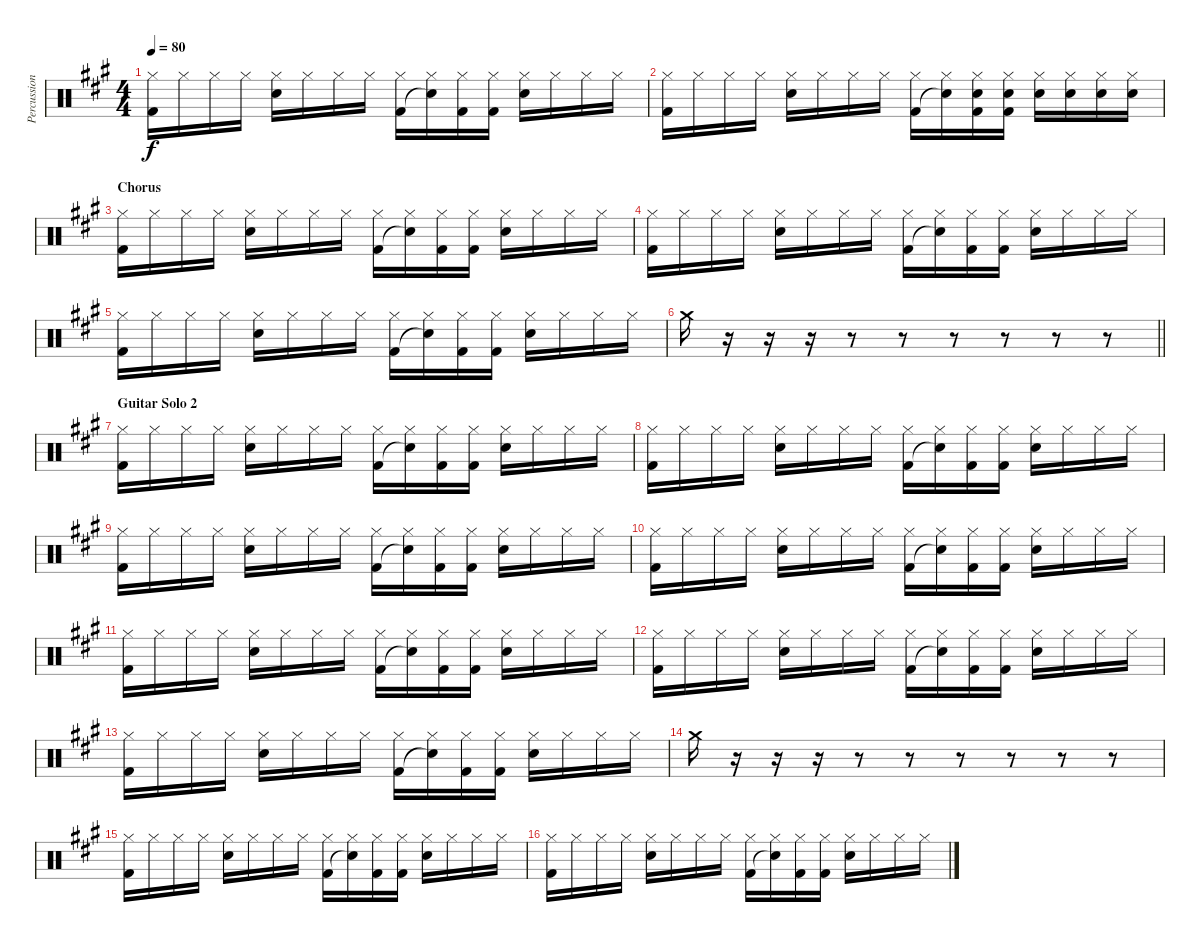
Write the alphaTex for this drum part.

\track ("Percussion" "Percussion") {instrument percussion}
\staff {score}
\articulation defaults
\ts (4 4)
\tempo 80
\clef neutral
\ks a
("Hi-Hat (closed)" "Kick (hit) 2").16{dy f} "Hi-Hat (closed)".16 "Hi-Hat (closed)".16 "Hi-Hat (closed)".16 ("Hi-Hat (closed)" "Snare (hit) 2").16 "Hi-Hat (closed)".16 "Hi-Hat (closed)".16 "Hi-Hat (closed)".16 ("Hi-Hat (closed)" "Kick (hit) 2").16 ("Hi-Hat (closed)" "Snare (hit)"{t}).16 ("Hi-Hat (closed)" "Kick (hit) 2").16 ("Hi-Hat (closed)" "Kick (hit) 2").16 ("Hi-Hat (closed)" "Snare (hit) 2").16 "Hi-Hat (closed)".16 "Hi-Hat (closed)".16 "Hi-Hat (closed)".16 |
("Hi-Hat (closed)" "Kick (hit) 2").16 "Hi-Hat (closed)".16 "Hi-Hat (closed)".16 "Hi-Hat (closed)".16 ("Hi-Hat (closed)" "Snare (hit) 2").16 "Hi-Hat (closed)".16 "Hi-Hat (closed)".16 "Hi-Hat (closed)".16 ("Hi-Hat (closed)" "Kick (hit) 2").16 ("Hi-Hat (closed)" "Snare (hit)"{t}).16 ("Hi-Hat (closed)" "Snare (hit) 2" "Kick (hit) 2").16 ("Hi-Hat (closed)" "Snare (hit) 2" "Kick (hit) 2").16 ("Hi-Hat (closed)" "Snare (hit) 2").16 ("Hi-Hat (closed)" "Snare (hit) 2").16 ("Hi-Hat (closed)" "Snare (hit) 2").16 ("Hi-Hat (closed)" "Snare (hit) 2").16 |
\section ("" "Chorus")
("Hi-Hat (closed)" "Kick (hit) 2").16 "Hi-Hat (closed)".16 "Hi-Hat (closed)".16 "Hi-Hat (closed)".16 ("Hi-Hat (closed)" "Snare (hit) 2").16 "Hi-Hat (closed)".16 "Hi-Hat (closed)".16 "Hi-Hat (closed)".16 ("Hi-Hat (closed)" "Kick (hit) 2").16 ("Hi-Hat (closed)" "Snare (hit)"{t}).16 ("Hi-Hat (closed)" "Kick (hit) 2").16 ("Hi-Hat (closed)" "Kick (hit) 2").16 ("Hi-Hat (closed)" "Snare (hit) 2").16 "Hi-Hat (closed)".16 "Hi-Hat (closed)".16 "Hi-Hat (closed)".16 |
("Hi-Hat (closed)" "Kick (hit) 2").16 "Hi-Hat (closed)".16 "Hi-Hat (closed)".16 "Hi-Hat (closed)".16 ("Hi-Hat (closed)" "Snare (hit) 2").16 "Hi-Hat (closed)".16 "Hi-Hat (closed)".16 "Hi-Hat (closed)".16 ("Hi-Hat (closed)" "Kick (hit) 2").16 ("Hi-Hat (closed)" "Snare (hit)"{t}).16 ("Hi-Hat (closed)" "Kick (hit) 2").16 ("Hi-Hat (closed)" "Kick (hit) 2").16 ("Hi-Hat (closed)" "Snare (hit) 2").16 "Hi-Hat (closed)".16 "Hi-Hat (closed)".16 "Hi-Hat (closed)".16 |
("Hi-Hat (closed)" "Kick (hit) 2").16 "Hi-Hat (closed)".16 "Hi-Hat (closed)".16 "Hi-Hat (closed)".16 ("Hi-Hat (closed)" "Snare (hit) 2").16 "Hi-Hat (closed)".16 "Hi-Hat (closed)".16 "Hi-Hat (closed)".16 ("Hi-Hat (closed)" "Kick (hit) 2").16 ("Hi-Hat (closed)" "Snare (hit)"{t}).16 ("Hi-Hat (closed)" "Kick (hit) 2").16 ("Hi-Hat (closed)" "Kick (hit) 2").16 ("Hi-Hat (closed)" "Snare (hit) 2").16 "Hi-Hat (closed)".16 "Hi-Hat (closed)".16 "Hi-Hat (closed)".16 |
\barLineRight lightlight "Crash medium (hit)".16
r.16 r.16 r.16 r.8 r.8 r.8 r.8 r.8 r.8 |
\section ("" "Guitar Solo 2")
("Hi-Hat (closed)" "Kick (hit) 2").16 "Hi-Hat (closed)".16 "Hi-Hat (closed)".16 "Hi-Hat (closed)".16 ("Hi-Hat (closed)" "Snare (hit) 2").16 "Hi-Hat (closed)".16 "Hi-Hat (closed)".16 "Hi-Hat (closed)".16 ("Hi-Hat (closed)" "Kick (hit) 2").16 ("Hi-Hat (closed)" "Snare (hit)"{t}).16 ("Hi-Hat (closed)" "Kick (hit) 2").16 ("Hi-Hat (closed)" "Kick (hit) 2").16 ("Hi-Hat (closed)" "Snare (hit) 2").16 "Hi-Hat (closed)".16 "Hi-Hat (closed)".16 "Hi-Hat (closed)".16 |
("Hi-Hat (closed)" "Kick (hit) 2").16 "Hi-Hat (closed)".16 "Hi-Hat (closed)".16 "Hi-Hat (closed)".16 ("Hi-Hat (closed)" "Snare (hit) 2").16 "Hi-Hat (closed)".16 "Hi-Hat (closed)".16 "Hi-Hat (closed)".16 ("Hi-Hat (closed)" "Kick (hit) 2").16 ("Hi-Hat (closed)" "Snare (hit)"{t}).16 ("Hi-Hat (closed)" "Kick (hit) 2").16 ("Hi-Hat (closed)" "Kick (hit) 2").16 ("Hi-Hat (closed)" "Snare (hit) 2").16 "Hi-Hat (closed)".16 "Hi-Hat (closed)".16 "Hi-Hat (closed)".16 |
("Hi-Hat (closed)" "Kick (hit) 2").16 "Hi-Hat (closed)".16 "Hi-Hat (closed)".16 "Hi-Hat (closed)".16 ("Hi-Hat (closed)" "Snare (hit) 2").16 "Hi-Hat (closed)".16 "Hi-Hat (closed)".16 "Hi-Hat (closed)".16 ("Hi-Hat (closed)" "Kick (hit) 2").16 ("Hi-Hat (closed)" "Snare (hit)"{t}).16 ("Hi-Hat (closed)" "Kick (hit) 2").16 ("Hi-Hat (closed)" "Kick (hit) 2").16 ("Hi-Hat (closed)" "Snare (hit) 2").16 "Hi-Hat (closed)".16 "Hi-Hat (closed)".16 "Hi-Hat (closed)".16 |
("Hi-Hat (closed)" "Kick (hit) 2").16 "Hi-Hat (closed)".16 "Hi-Hat (closed)".16 "Hi-Hat (closed)".16 ("Hi-Hat (closed)" "Snare (hit) 2").16 "Hi-Hat (closed)".16 "Hi-Hat (closed)".16 "Hi-Hat (closed)".16 ("Hi-Hat (closed)" "Kick (hit) 2").16 ("Hi-Hat (closed)" "Snare (hit)"{t}).16 ("Hi-Hat (closed)" "Kick (hit) 2").16 ("Hi-Hat (closed)" "Kick (hit) 2").16 ("Hi-Hat (closed)" "Snare (hit) 2").16 "Hi-Hat (closed)".16 "Hi-Hat (closed)".16 "Hi-Hat (closed)".16 |
("Hi-Hat (closed)" "Kick (hit) 2").16 "Hi-Hat (closed)".16 "Hi-Hat (closed)".16 "Hi-Hat (closed)".16 ("Hi-Hat (closed)" "Snare (hit) 2").16 "Hi-Hat (closed)".16 "Hi-Hat (closed)".16 "Hi-Hat (closed)".16 ("Hi-Hat (closed)" "Kick (hit) 2").16 ("Hi-Hat (closed)" "Snare (hit)"{t}).16 ("Hi-Hat (closed)" "Kick (hit) 2").16 ("Hi-Hat (closed)" "Kick (hit) 2").16 ("Hi-Hat (closed)" "Snare (hit) 2").16 "Hi-Hat (closed)".16 "Hi-Hat (closed)".16 "Hi-Hat (closed)".16 |
("Hi-Hat (closed)" "Kick (hit) 2").16 "Hi-Hat (closed)".16 "Hi-Hat (closed)".16 "Hi-Hat (closed)".16 ("Hi-Hat (closed)" "Snare (hit) 2").16 "Hi-Hat (closed)".16 "Hi-Hat (closed)".16 "Hi-Hat (closed)".16 ("Hi-Hat (closed)" "Kick (hit) 2").16 ("Hi-Hat (closed)" "Snare (hit)"{t}).16 ("Hi-Hat (closed)" "Kick (hit) 2").16 ("Hi-Hat (closed)" "Kick (hit) 2").16 ("Hi-Hat (closed)" "Snare (hit) 2").16 "Hi-Hat (closed)".16 "Hi-Hat (closed)".16 "Hi-Hat (closed)".16 |
("Hi-Hat (closed)" "Kick (hit) 2").16 "Hi-Hat (closed)".16 "Hi-Hat (closed)".16 "Hi-Hat (closed)".16 ("Hi-Hat (closed)" "Snare (hit) 2").16 "Hi-Hat (closed)".16 "Hi-Hat (closed)".16 "Hi-Hat (closed)".16 ("Hi-Hat (closed)" "Kick (hit) 2").16 ("Hi-Hat (closed)" "Snare (hit)"{t}).16 ("Hi-Hat (closed)" "Kick (hit) 2").16 ("Hi-Hat (closed)" "Kick (hit) 2").16 ("Hi-Hat (closed)" "Snare (hit) 2").16 "Hi-Hat (closed)".16 "Hi-Hat (closed)".16 "Hi-Hat (closed)".16 |
"Crash medium (hit)".16 r.16 r.16 r.16 r.8 r.8 r.8 r.8 r.8 r.8 |
("Hi-Hat (closed)" "Kick (hit) 2").16 "Hi-Hat (closed)".16 "Hi-Hat (closed)".16 "Hi-Hat (closed)".16 ("Hi-Hat (closed)" "Snare (hit) 2").16 "Hi-Hat (closed)".16 "Hi-Hat (closed)".16 "Hi-Hat (closed)".16 ("Hi-Hat (closed)" "Kick (hit) 2").16 ("Hi-Hat (closed)" "Snare (hit)"{t}).16 ("Hi-Hat (closed)" "Kick (hit) 2").16 ("Hi-Hat (closed)" "Kick (hit) 2").16 ("Hi-Hat (closed)" "Snare (hit) 2").16 "Hi-Hat (closed)".16 "Hi-Hat (closed)".16 "Hi-Hat (closed)".16 |
("Hi-Hat (closed)" "Kick (hit) 2").16 "Hi-Hat (closed)".16 "Hi-Hat (closed)".16 "Hi-Hat (closed)".16 ("Hi-Hat (closed)" "Snare (hit) 2").16 "Hi-Hat (closed)".16 "Hi-Hat (closed)".16 "Hi-Hat (closed)".16 ("Hi-Hat (closed)" "Kick (hit) 2").16 ("Hi-Hat (closed)" "Snare (hit)"{t}).16 ("Hi-Hat (closed)" "Kick (hit) 2").16 ("Hi-Hat (closed)" "Kick (hit) 2").16 ("Hi-Hat (closed)" "Snare (hit) 2").16 "Hi-Hat (closed)".16 "Hi-Hat (closed)".16 "Hi-Hat (closed)".16
